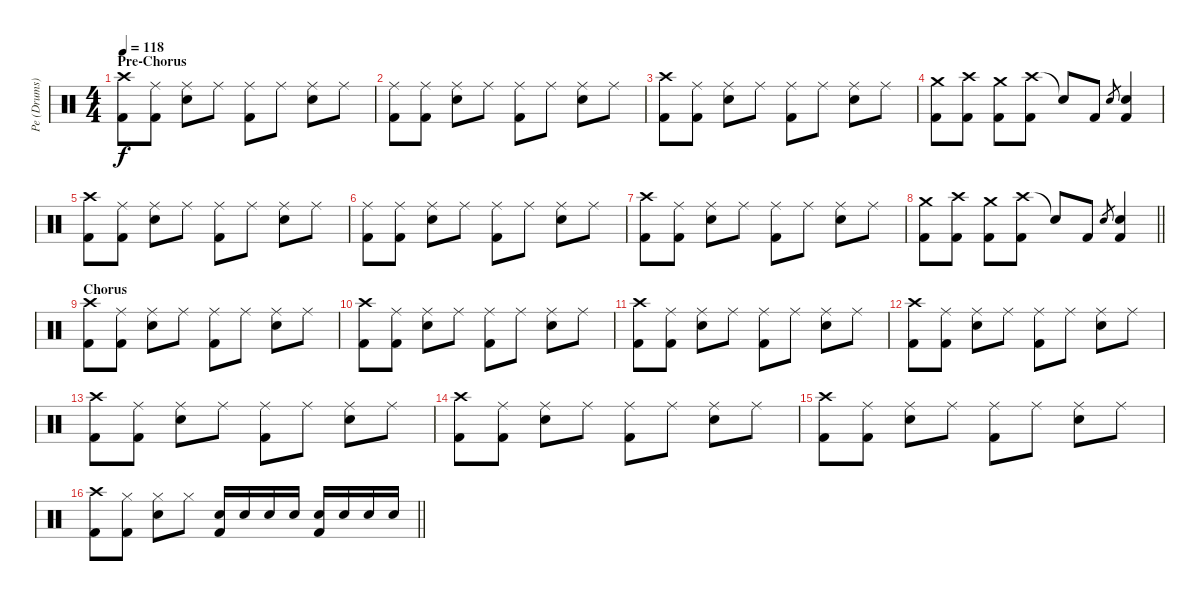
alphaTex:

\track ("Pe (Drums)" "Pe (Drums)") {instrument percussion}
\staff {score}
\articulation defaults
\ts (4 4)
\section ("" "Pre-Chorus")
\tempo 118
\clef neutral
\ks c
("Crash high (hit)" "Kick (hit) 2").8{dy f} ("Ride (middle)" "Kick (hit) 2").8 ("Ride (middle)" "Snare (hit) 2").8 "Ride (middle)".8 ("Ride (middle)" "Kick (hit) 2").8 "Ride (middle)".8 ("Ride (middle)" "Snare (hit) 2").8 "Ride (middle)".8 |
("Ride (middle)" "Kick (hit) 2").8 ("Ride (middle)" "Kick (hit) 2").8 ("Ride (middle)" "Snare (hit) 2").8 "Ride (middle)".8 ("Ride (middle)" "Kick (hit) 2").8 "Ride (middle)".8 ("Ride (middle)" "Snare (hit) 2").8 "Ride (middle)".8 |
("Crash high (hit)" "Kick (hit) 2").8 ("Ride (middle)" "Kick (hit) 2").8 ("Ride (middle)" "Snare (hit) 2").8 "Ride (middle)".8 ("Ride (middle)" "Kick (hit) 2").8 "Ride (middle)".8 ("Ride (middle)" "Snare (hit) 2").8 "Ride (middle)".8 |
("Crash medium (hit)" "Kick (hit) 2").8 ("Crash high (hit)" "Kick (hit) 2").8 ("Crash medium (hit)" "Kick (hit) 2").8 ("Crash high (hit)" "Kick (hit) 2").8 "Snare (hit)"{t}.8 "Kick (hit) 2".8 "Snare (hit) 2".8{gr} ("Snare (hit) 2" "Kick (hit) 2").4 |
("Crash high (hit)" "Kick (hit) 2").8 ("Ride (middle)" "Kick (hit) 2").8 ("Ride (middle)" "Snare (hit) 2").8 "Ride (middle)".8 ("Ride (middle)" "Kick (hit) 2").8 "Ride (middle)".8 ("Ride (middle)" "Snare (hit) 2").8 "Ride (middle)".8 |
("Ride (middle)" "Kick (hit) 2").8 ("Ride (middle)" "Kick (hit) 2").8 ("Ride (middle)" "Snare (hit) 2").8 "Ride (middle)".8 ("Ride (middle)" "Kick (hit) 2").8 "Ride (middle)".8 ("Ride (middle)" "Snare (hit) 2").8 "Ride (middle)".8 |
("Crash high (hit)" "Kick (hit) 2").8 ("Ride (middle)" "Kick (hit) 2").8 ("Ride (middle)" "Snare (hit) 2").8 "Ride (middle)".8 ("Ride (middle)" "Kick (hit) 2").8 "Ride (middle)".8 ("Ride (middle)" "Snare (hit) 2").8 "Ride (middle)".8 |
\barLineRight lightlight
("Crash medium (hit)" "Kick (hit) 2").8 ("Crash high (hit)" "Kick (hit) 2").8 ("Crash medium (hit)" "Kick (hit) 2").8 ("Crash high (hit)" "Kick (hit) 2").8 "Snare (hit)"{t}.8 "Kick (hit) 2".8 "Snare (hit) 2".8{gr} ("Snare (hit) 2" "Kick (hit) 2").4 |
\section ("" "Chorus")
("Crash high (hit)" "Kick (hit) 2").8 ("Ride (middle)" "Kick (hit) 2").8 ("Ride (middle)" "Snare (hit) 2").8 "Ride (middle)".8 ("Ride (middle)" "Kick (hit) 2").8 "Ride (middle)".8 ("Ride (middle)" "Snare (hit) 2").8 "Ride (middle)".8 |
("Crash high (hit)" "Kick (hit) 2").8 ("Ride (middle)" "Kick (hit) 2").8 ("Ride (middle)" "Snare (hit) 2").8 "Ride (middle)".8 ("Ride (middle)" "Kick (hit) 2").8 "Ride (middle)".8 ("Ride (middle)" "Snare (hit) 2").8 "Ride (middle)".8 |
("Crash high (hit)" "Kick (hit) 2").8 ("Ride (middle)" "Kick (hit) 2").8 ("Ride (middle)" "Snare (hit) 2").8 "Ride (middle)".8 ("Ride (middle)" "Kick (hit) 2").8 "Ride (middle)".8 ("Ride (middle)" "Snare (hit) 2").8 "Ride (middle)".8 |
("Crash high (hit)" "Kick (hit) 2").8 ("Ride (middle)" "Kick (hit) 2").8 ("Ride (middle)" "Snare (hit) 2").8 "Ride (middle)".8 ("Ride (middle)" "Kick (hit) 2").8 "Ride (middle)".8 ("Ride (middle)" "Snare (hit) 2").8 "Ride (middle)".8 |
("Crash high (hit)" "Kick (hit) 2").8 ("Ride (middle)" "Kick (hit) 2").8 ("Ride (middle)" "Snare (hit) 2").8 "Ride (middle)".8 ("Ride (middle)" "Kick (hit) 2").8 "Ride (middle)".8 ("Ride (middle)" "Snare (hit) 2").8 "Ride (middle)".8 |
("Crash high (hit)" "Kick (hit) 2").8 ("Ride (middle)" "Kick (hit) 2").8 ("Ride (middle)" "Snare (hit) 2").8 "Ride (middle)".8 ("Ride (middle)" "Kick (hit) 2").8 "Ride (middle)".8 ("Ride (middle)" "Snare (hit) 2").8 "Ride (middle)".8 |
("Crash high (hit)" "Kick (hit) 2").8 ("Ride (middle)" "Kick (hit) 2").8 ("Ride (middle)" "Snare (hit) 2").8 "Ride (middle)".8 ("Ride (middle)" "Kick (hit) 2").8 "Ride (middle)".8 ("Ride (middle)" "Snare (hit) 2").8 "Ride (middle)".8 |
\barLineRight lightlight
("Crash high (hit)" "Kick (hit) 2").8 ("Hi-Hat (closed)" "Kick (hit) 2").8 ("Hi-Hat (closed)" "Snare (hit) 2").8 "Hi-Hat (closed)".8 ("Snare (hit) 2" "Kick (hit) 2").16 "Snare (hit) 2".16 "Snare (hit) 2".16 "Snare (hit) 2".16 ("Snare (hit) 2" "Kick (hit) 2").16 "Snare (hit) 2".16 "Snare (hit) 2".16 "Snare (hit) 2".16
